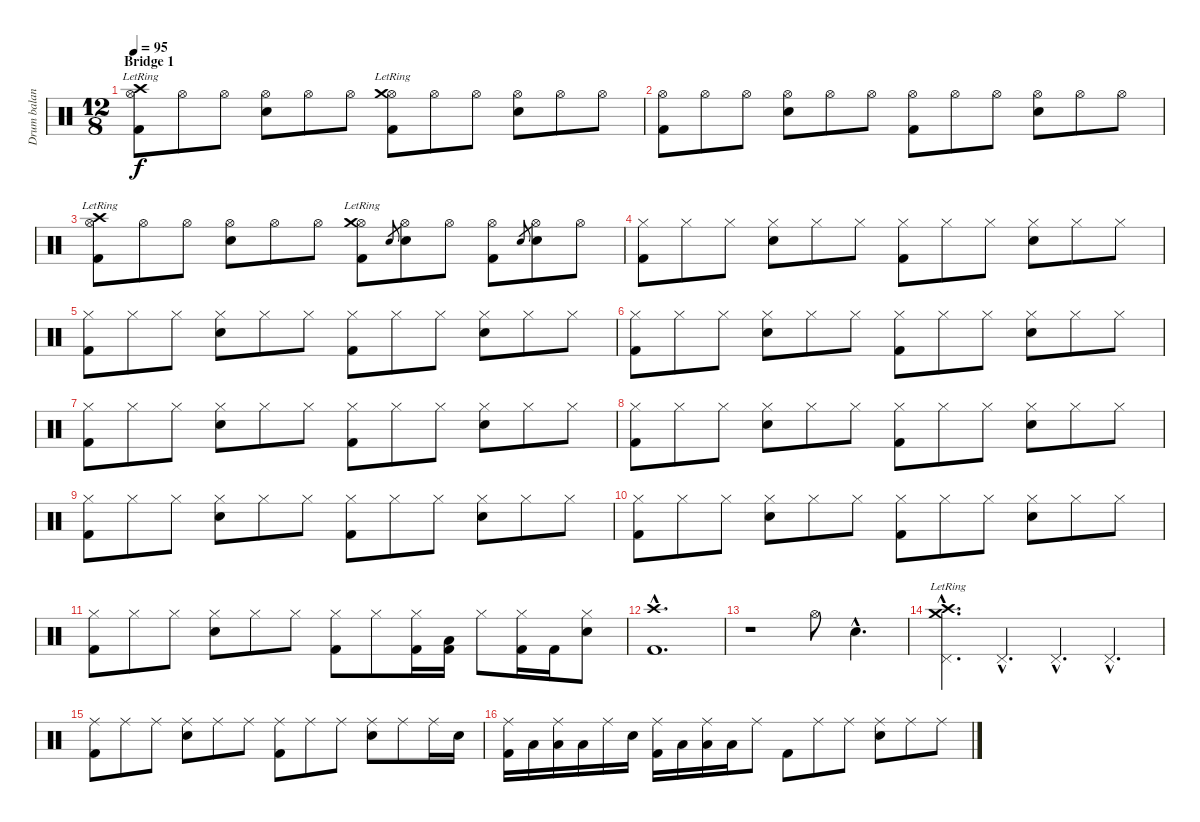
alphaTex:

\track ("Drum balance help" "Drum balan") {instrument percussion}
\staff {score}
\articulation defaults
\ts (12 8)
\section ("" "Bridge 1")
\tempo 95
\clef neutral
\ks c
("Kick (hit) 2" "Hi-Hat (open)" "Crash high (hit)"{lr}).8{dy f} "Hi-Hat (open)".8 "Hi-Hat (open)".8 ("Snare (hit) 2" "Hi-Hat (open)").8 "Hi-Hat (open)".8 "Hi-Hat (open)".8 ("Kick (hit) 2" "Hi-Hat (open)" "Crash medium (hit)"{lr}).8 "Hi-Hat (open)".8 "Hi-Hat (open)".8 ("Snare (hit) 2" "Hi-Hat (open)").8 "Hi-Hat (open)".8 "Hi-Hat (open)".8 |
("Kick (hit) 2" "Hi-Hat (open)").8 "Hi-Hat (open)".8 "Hi-Hat (open)".8 ("Snare (hit) 2" "Hi-Hat (open)").8 "Hi-Hat (open)".8 "Hi-Hat (open)".8 ("Kick (hit) 2" "Hi-Hat (open)").8 "Hi-Hat (open)".8 "Hi-Hat (open)".8 ("Snare (hit) 2" "Hi-Hat (open)").8 "Hi-Hat (open)".8 "Hi-Hat (open)".8 |
("Kick (hit) 2" "Hi-Hat (open)" "Crash high (hit)"{lr}).8 "Hi-Hat (open)".8 "Hi-Hat (open)".8 ("Snare (hit) 2" "Hi-Hat (open)").8 "Hi-Hat (open)".8 "Hi-Hat (open)".8 ("Kick (hit) 2" "Hi-Hat (open)" "Crash medium (hit)"{lr}).8 "Snare (hit) 2"{sl}.8{gr} ("Snare (hit) 2" "Hi-Hat (open)").8 "Hi-Hat (open)".8 ("Kick (hit) 2" "Hi-Hat (open)").8 "Snare (hit) 2"{sl}.8{gr} ("Snare (hit) 2" "Hi-Hat (open)").8 "Hi-Hat (open)".8 |
("Kick (hit) 2" "Hi-Hat (closed)").8 "Hi-Hat (closed)".8 "Hi-Hat (closed)".8 ("Snare (hit) 2" "Hi-Hat (closed)").8 "Hi-Hat (closed)".8 "Hi-Hat (closed)".8 ("Kick (hit) 2" "Hi-Hat (closed)").8 "Hi-Hat (closed)".8 "Hi-Hat (closed)".8 ("Snare (hit) 2" "Hi-Hat (closed)").8 "Hi-Hat (closed)".8 "Hi-Hat (closed)".8 |
("Kick (hit) 2" "Hi-Hat (closed)").8 "Hi-Hat (closed)".8 "Hi-Hat (closed)".8 ("Snare (hit) 2" "Hi-Hat (closed)").8 "Hi-Hat (closed)".8 "Hi-Hat (closed)".8 ("Kick (hit) 2" "Hi-Hat (closed)").8 "Hi-Hat (closed)".8 "Hi-Hat (closed)".8 ("Snare (hit) 2" "Hi-Hat (closed)").8 "Hi-Hat (closed)".8 "Hi-Hat (closed)".8 |
("Kick (hit) 2" "Hi-Hat (closed)").8 "Hi-Hat (closed)".8 "Hi-Hat (closed)".8 ("Snare (hit) 2" "Hi-Hat (closed)").8 "Hi-Hat (closed)".8 "Hi-Hat (closed)".8 ("Kick (hit) 2" "Hi-Hat (closed)").8 "Hi-Hat (closed)".8 "Hi-Hat (closed)".8 ("Snare (hit) 2" "Hi-Hat (closed)").8 "Hi-Hat (closed)".8 "Hi-Hat (closed)".8 |
("Kick (hit) 2" "Hi-Hat (closed)").8 "Hi-Hat (closed)".8 "Hi-Hat (closed)".8 ("Snare (hit) 2" "Hi-Hat (closed)").8 "Hi-Hat (closed)".8 "Hi-Hat (closed)".8 ("Kick (hit) 2" "Hi-Hat (closed)").8 "Hi-Hat (closed)".8 "Hi-Hat (closed)".8 ("Snare (hit) 2" "Hi-Hat (closed)").8 "Hi-Hat (closed)".8 "Hi-Hat (closed)".8 |
("Kick (hit) 2" "Hi-Hat (closed)").8 "Hi-Hat (closed)".8 "Hi-Hat (closed)".8 ("Snare (hit) 2" "Hi-Hat (closed)").8 "Hi-Hat (closed)".8 "Hi-Hat (closed)".8 ("Kick (hit) 2" "Hi-Hat (closed)").8 "Hi-Hat (closed)".8 "Hi-Hat (closed)".8 ("Snare (hit) 2" "Hi-Hat (closed)").8 "Hi-Hat (closed)".8 "Hi-Hat (closed)".8 |
("Kick (hit) 2" "Hi-Hat (closed)").8 "Hi-Hat (closed)".8 "Hi-Hat (closed)".8 ("Snare (hit) 2" "Hi-Hat (closed)").8 "Hi-Hat (closed)".8 "Hi-Hat (closed)".8 ("Kick (hit) 2" "Hi-Hat (closed)").8 "Hi-Hat (closed)".8 "Hi-Hat (closed)".8 ("Snare (hit) 2" "Hi-Hat (closed)").8 "Hi-Hat (closed)".8 "Hi-Hat (closed)".8 |
("Kick (hit) 2" "Hi-Hat (closed)").8 "Hi-Hat (closed)".8 "Hi-Hat (closed)".8 ("Snare (hit) 2" "Hi-Hat (closed)").8 "Hi-Hat (closed)".8 "Hi-Hat (closed)".8 ("Kick (hit) 2" "Hi-Hat (closed)").8 "Hi-Hat (closed)".8 "Hi-Hat (closed)".8 ("Snare (hit) 2" "Hi-Hat (closed)").8 "Hi-Hat (closed)".8 "Hi-Hat (closed)".8 |
("Kick (hit) 2" "Hi-Hat (closed)").8 "Hi-Hat (closed)".8 "Hi-Hat (closed)".8 ("Snare (hit) 2" "Hi-Hat (closed)").8 "Hi-Hat (closed)".8 "Hi-Hat (closed)".8 ("Kick (hit) 2" "Hi-Hat (closed)").8 "Hi-Hat (closed)".8 ("Kick (hit) 2" "Hi-Hat (closed)").16 ("Kick (hit) 2" "Low Tom (hit)").16 "Hi-Hat (closed)".8 ("Kick (hit) 2" "Hi-Hat (closed)").16 "Kick (hit) 2".16 ("Snare (hit) 2" "Hi-Hat (closed)").8 |
("Kick (hit) 2"{hac} "Crash high (hit)"{hac}).1{d} |
r.1 "Hi-Hat (open)".8 "Snare (hit) 2"{hac}.4{d} |
("Pedal Hi-Hat (hit)"{hac} "Crash medium (hit)"{hac lr} "Crash high (hit)"{hac lr}).4{d} "Pedal Hi-Hat (hit)"{hac}.4{d} "Pedal Hi-Hat (hit)"{hac}.4{d} "Pedal Hi-Hat (hit)"{hac}.4{d} |
("Kick (hit) 2" "Ride (middle)").8 "Ride (middle)".8 "Ride (middle)".8 ("Snare (hit) 2" "Ride (middle)").8 "Ride (middle)".8 "Ride (middle)".8 ("Kick (hit) 2" "Ride (middle)").8 "Ride (middle)".8 "Ride (middle)".8 ("Snare (hit) 2" "Ride (middle)").8 "Ride (middle)".8 "Ride (middle)".16 "Snare (hit) 2".16 |
("Kick (hit) 2" "Ride (middle)").16 "Low Tom (hit)".16 ("Ride (middle)" "Low Tom (hit)").16 "Low Tom (hit)".16 "Ride (middle)".16 "Snare (hit) 2".16 ("Kick (hit) 2" "Ride (middle)").16 "Low Tom (hit)".16 ("Ride (middle)" "Low Tom (hit)").16 "Low Tom (hit)".16 "Ride (middle)".8 "Kick (hit) 2".8 "Ride (middle)".8 "Ride (middle)".8 ("Snare (hit) 2" "Ride (middle)").8 "Ride (middle)".8 "Ride (middle)".8
